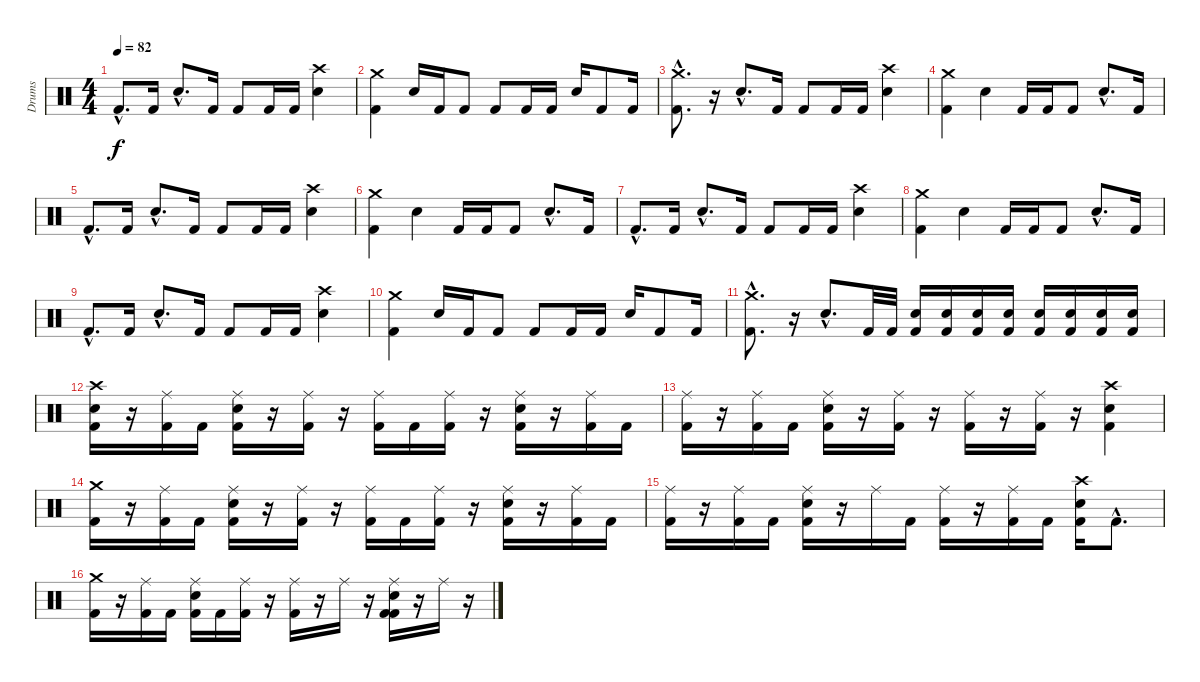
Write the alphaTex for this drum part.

\track ("Drums" "Drums") {instrument percussion}
\staff {score}
\articulation defaults
\ts (4 4)
\tempo 82
\clef neutral
\ks c "Kick (hit) 2"{hac}.8{d dy f} "Kick (hit) 2".16 "Electric Snare (hit)"{hac}.8{d} "Kick (hit) 2".16 "Kick (hit) 2".8 "Kick (hit) 2".16 "Kick (hit) 2".16
("Crash high (hit)" "Electric Snare (hit)").4 |
("Crash medium (hit)" "Kick (hit) 2").4 "Electric Snare (hit)".16 "Kick (hit) 2".16 "Kick (hit) 2".8 "Kick (hit) 2".8 "Kick (hit) 2".16 "Kick (hit) 2".16 "Electric Snare (hit)".16 "Kick (hit) 2".8 "Kick (hit) 2".16 |
("Crash medium (hit)"{hac} "Kick (hit) 2"{hac}).8{d} r.16 "Electric Snare (hit)"{hac}.8{d} "Kick (hit) 2".16 "Kick (hit) 2".8 "Kick (hit) 2".16 "Kick (hit) 2".16 ("Crash high (hit)" "Electric Snare (hit)").4 |
("Crash medium (hit)" "Kick (hit) 2").4 "Electric Snare (hit)".4 "Kick (hit) 2".16 "Kick (hit) 2".16 "Kick (hit) 2".8 "Electric Snare (hit)"{hac}.8{d} "Kick (hit) 2".16 |
"Kick (hit) 2"{hac}.8{d} "Kick (hit) 2".16 "Electric Snare (hit)"{hac}.8{d} "Kick (hit) 2".16 "Kick (hit) 2".8 "Kick (hit) 2".16 "Kick (hit) 2".16 ("Crash high (hit)" "Electric Snare (hit)").4 |
("Crash medium (hit)" "Kick (hit) 2").4 "Electric Snare (hit)".4 "Kick (hit) 2".16 "Kick (hit) 2".16 "Kick (hit) 2".8 "Electric Snare (hit)"{hac}.8{d} "Kick (hit) 2".16 |
"Kick (hit) 2"{hac}.8{d} "Kick (hit) 2".16 "Electric Snare (hit)"{hac}.8{d} "Kick (hit) 2".16 "Kick (hit) 2".8 "Kick (hit) 2".16 "Kick (hit) 2".16 ("Crash high (hit)" "Electric Snare (hit)").4 |
("Crash medium (hit)" "Kick (hit) 2").4 "Electric Snare (hit)".4 "Kick (hit) 2".16 "Kick (hit) 2".16 "Kick (hit) 2".8 "Electric Snare (hit)"{hac}.8{d} "Kick (hit) 2".16 |
"Kick (hit) 2"{hac}.8{d} "Kick (hit) 2".16 "Electric Snare (hit)"{hac}.8{d} "Kick (hit) 2".16 "Kick (hit) 2".8 "Kick (hit) 2".16 "Kick (hit) 2".16 ("Crash high (hit)" "Electric Snare (hit)").4 |
("Crash medium (hit)" "Kick (hit) 2").4 "Electric Snare (hit)".16 "Kick (hit) 2".16 "Kick (hit) 2".8 "Kick (hit) 2".8 "Kick (hit) 2".16 "Kick (hit) 2".16 "Electric Snare (hit)".16 "Kick (hit) 2".8 "Kick (hit) 2".16 |
("Crash medium (hit)"{hac} "Kick (hit) 2"{hac}).8{d} r.16 "Electric Snare (hit)"{hac}.8{d} "Kick (hit) 2".32 "Kick (hit) 2".32 ("Electric Snare (hit)" "Kick (hit) 2").16 ("Electric Snare (hit)" "Kick (hit) 2").16 ("Electric Snare (hit)" "Kick (hit) 2").16 ("Electric Snare (hit)" "Kick (hit) 2").16 ("Electric Snare (hit)" "Kick (hit) 2").16 ("Electric Snare (hit)" "Kick (hit) 2").16 ("Electric Snare (hit)" "Kick (hit) 2").16 ("Electric Snare (hit)" "Kick (hit) 2").16 |
("Crash high (hit)" "Electric Snare (hit)" "Kick (hit) 2").16 r.16 ("Ride (middle)" "Kick (hit) 2").16 "Kick (hit) 2".16 ("Ride (middle)" "Electric Snare (hit)" "Kick (hit) 2").16 r.16 ("Ride (middle)" "Kick (hit) 2").16 r.16 ("Ride (middle)" "Kick (hit) 2").16 "Kick (hit) 2".16 ("Ride (middle)" "Kick (hit) 2").16 r.16 ("Ride (middle)" "Electric Snare (hit)" "Kick (hit) 2").16 r.16 ("Ride (middle)" "Kick (hit) 2").16 "Kick (hit) 2".16 |
("Ride (middle)" "Kick (hit) 2").16 r.16 ("Ride (middle)" "Kick (hit) 2").16 "Kick (hit) 2".16 ("Ride (middle)" "Electric Snare (hit)" "Kick (hit) 2").16 r.16 ("Ride (middle)" "Kick (hit) 2").16 r.16 ("Ride (middle)" "Kick (hit) 2").16 r.16 ("Ride (middle)" "Kick (hit) 2").16 r.16 ("Crash high (hit)" "Electric Snare (hit)" "Kick (hit) 2").4 |
("Crash medium (hit)" "Kick (hit) 2").16 r.16 ("Ride (middle)" "Kick (hit) 2").16 "Kick (hit) 2".16 ("Ride (middle)" "Electric Snare (hit)" "Kick (hit) 2").16 r.16 ("Ride (middle)" "Kick (hit) 2").16 r.16 ("Ride (middle)" "Kick (hit) 2").16 "Kick (hit) 2".16 ("Ride (middle)" "Kick (hit) 2").16 r.16 ("Ride (middle)" "Electric Snare (hit)" "Kick (hit) 2").16 r.16 ("Ride (middle)" "Kick (hit) 2").16 "Kick (hit) 2".16 |
("Ride (middle)" "Kick (hit) 2").16 r.16 ("Ride (middle)" "Kick (hit) 2").16 "Kick (hit) 2".16 ("Ride (middle)" "Electric Snare (hit)" "Kick (hit) 2").16 r.16 "Ride (middle)".16 "Kick (hit) 2".16 ("Ride (middle)" "Kick (hit) 2").16 r.16 ("Ride (middle)" "Kick (hit) 2").16 "Kick (hit) 2".16 ("Crash high (hit)" "Electric Snare (hit)" "Kick (hit) 2").16 "Kick (hit) 2"{hac}.8{d} |
("Crash medium (hit)" "Kick (hit) 2").16 r.16 ("Ride (middle)" "Kick (hit) 2").16 "Kick (hit) 2".16 ("Ride (middle)" "Electric Snare (hit)" "Kick (hit) 2").16 "Kick (hit) 2".16 ("Ride (middle)" "Kick (hit) 2").16 r.16 ("Ride (middle)" "Kick (hit) 2").16 r.16 "Ride (middle)".16 r.16 ("Ride (middle)" "Electric Snare (hit)" "Kick (hit) 2" "Kick (hit) 2").16 r.16 "Ride (middle)".16 r.16
